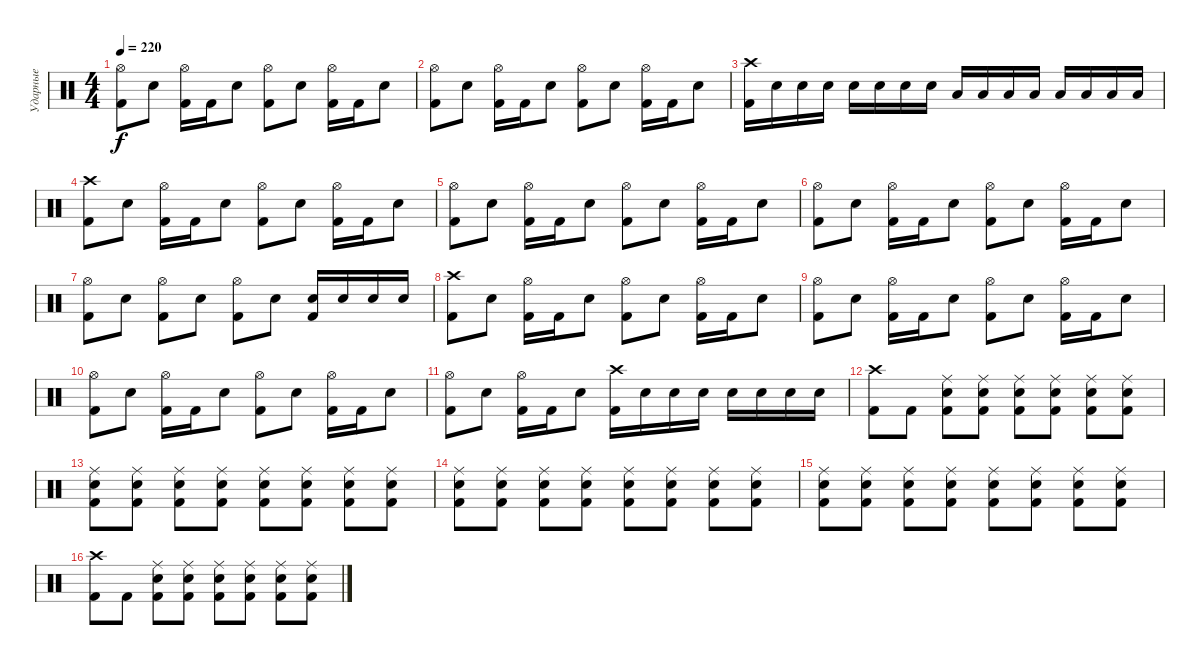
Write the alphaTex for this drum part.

\track ("Ударные" "Ударные") {instrument percussion}
\staff {score}
\articulation defaults
\ts (4 4)
\tempo 220
\clef neutral
\ks c
("Hi-Hat (open)" "Kick (hit) 2").8{dy f} "Electric Snare (hit)".8 ("Hi-Hat (open)" "Kick (hit) 2").16 "Kick (hit) 2".16 "Electric Snare (hit)".8 ("Hi-Hat (open)" "Kick (hit) 2").8 "Electric Snare (hit)".8 ("Hi-Hat (open)" "Kick (hit) 2").16 "Kick (hit) 2".16 "Electric Snare (hit)".8 |
("Hi-Hat (open)" "Kick (hit) 2").8 "Electric Snare (hit)".8 ("Hi-Hat (open)" "Kick (hit) 2").16 "Kick (hit) 2".16 "Electric Snare (hit)".8 ("Hi-Hat (open)" "Kick (hit) 2").8 "Electric Snare (hit)".8 ("Hi-Hat (open)" "Kick (hit) 2").16 "Kick (hit) 2".16 "Electric Snare (hit)".8 |
("Crash high (hit)" "Kick (hit) 2").16 "Electric Snare (hit)".16 "Electric Snare (hit)".16 "Electric Snare (hit)".16 "Electric Snare (hit)".16 "Electric Snare (hit)".16 "Electric Snare (hit)".16 "Electric Snare (hit)".16 "Low Tom (hit)".16 "Low Tom (hit)".16 "Low Tom (hit)".16 "Low Tom (hit)".16 "Low Floor Tom (hit)".16 "Low Floor Tom (hit)".16 "Low Floor Tom (hit)".16 "Low Floor Tom (hit)".16 |
("Crash high (hit)" "Kick (hit) 2").8 "Electric Snare (hit)".8 ("Hi-Hat (open)" "Kick (hit) 2").16 "Kick (hit) 2".16 "Electric Snare (hit)".8 ("Hi-Hat (open)" "Kick (hit) 2").8 "Electric Snare (hit)".8 ("Hi-Hat (open)" "Kick (hit) 2").16 "Kick (hit) 2".16 "Electric Snare (hit)".8 |
("Hi-Hat (open)" "Kick (hit) 2").8 "Electric Snare (hit)".8 ("Hi-Hat (open)" "Kick (hit) 2").16 "Kick (hit) 2".16 "Electric Snare (hit)".8 ("Hi-Hat (open)" "Kick (hit) 2").8 "Electric Snare (hit)".8 ("Hi-Hat (open)" "Kick (hit) 2").16 "Kick (hit) 2".16 "Electric Snare (hit)".8 |
("Hi-Hat (open)" "Kick (hit) 2").8 "Electric Snare (hit)".8 ("Hi-Hat (open)" "Kick (hit) 2").16 "Kick (hit) 2".16 "Electric Snare (hit)".8 ("Hi-Hat (open)" "Kick (hit) 2").8 "Electric Snare (hit)".8 ("Hi-Hat (open)" "Kick (hit) 2").16 "Kick (hit) 2".16 "Electric Snare (hit)".8 |
("Hi-Hat (open)" "Kick (hit) 2").8 "Electric Snare (hit)".8 ("Hi-Hat (open)" "Kick (hit) 2").8 "Electric Snare (hit)".8 ("Hi-Hat (open)" "Kick (hit) 2").8 "Electric Snare (hit)".8 ("Electric Snare (hit)" "Kick (hit) 2").16 "Electric Snare (hit)".16 "Electric Snare (hit)".16 "Electric Snare (hit)".16 |
("Crash high (hit)" "Kick (hit) 2").8 "Electric Snare (hit)".8 ("Hi-Hat (open)" "Kick (hit) 2").16 "Kick (hit) 2".16 "Electric Snare (hit)".8 ("Hi-Hat (open)" "Kick (hit) 2").8 "Electric Snare (hit)".8 ("Hi-Hat (open)" "Kick (hit) 2").16 "Kick (hit) 2".16 "Electric Snare (hit)".8 |
("Hi-Hat (open)" "Kick (hit) 2").8 "Electric Snare (hit)".8 ("Hi-Hat (open)" "Kick (hit) 2").16 "Kick (hit) 2".16 "Electric Snare (hit)".8 ("Hi-Hat (open)" "Kick (hit) 2").8 "Electric Snare (hit)".8 ("Hi-Hat (open)" "Kick (hit) 2").16 "Kick (hit) 2".16 "Electric Snare (hit)".8 |
("Hi-Hat (open)" "Kick (hit) 2").8 "Electric Snare (hit)".8 ("Hi-Hat (open)" "Kick (hit) 2").16 "Kick (hit) 2".16 "Electric Snare (hit)".8 ("Hi-Hat (open)" "Kick (hit) 2").8 "Electric Snare (hit)".8 ("Hi-Hat (open)" "Kick (hit) 2").16 "Kick (hit) 2".16 "Electric Snare (hit)".8 |
("Hi-Hat (open)" "Kick (hit) 2").8 "Electric Snare (hit)".8 ("Hi-Hat (open)" "Kick (hit) 2").16 "Kick (hit) 2".16 "Electric Snare (hit)".8 ("Crash high (hit)" "Kick (hit) 2").16 "Electric Snare (hit)".16 "Electric Snare (hit)".16 "Electric Snare (hit)".16 "Electric Snare (hit)".16 "Electric Snare (hit)".16 "Electric Snare (hit)".16 "Electric Snare (hit)".16 |
("Crash high (hit)" "Kick (hit) 2").8 "Kick (hit) 2".8 ("Ride (middle)" "Electric Snare (hit)" "Kick (hit) 2").8 ("Ride (middle)" "Electric Snare (hit)" "Kick (hit) 2").8 ("Ride (middle)" "Electric Snare (hit)" "Kick (hit) 2").8 ("Ride (middle)" "Electric Snare (hit)" "Kick (hit) 2").8 ("Ride (middle)" "Electric Snare (hit)" "Kick (hit) 2").8 ("Ride (middle)" "Electric Snare (hit)" "Kick (hit) 2").8 |
("Ride (middle)" "Electric Snare (hit)" "Kick (hit) 2").8 ("Ride (middle)" "Electric Snare (hit)" "Kick (hit) 2").8 ("Ride (middle)" "Electric Snare (hit)" "Kick (hit) 2").8 ("Ride (middle)" "Electric Snare (hit)" "Kick (hit) 2").8 ("Ride (middle)" "Electric Snare (hit)" "Kick (hit) 2").8 ("Ride (middle)" "Electric Snare (hit)" "Kick (hit) 2").8 ("Ride (middle)" "Electric Snare (hit)" "Kick (hit) 2").8 ("Ride (middle)" "Electric Snare (hit)" "Kick (hit) 2").8 |
("Ride (middle)" "Electric Snare (hit)" "Kick (hit) 2").8 ("Ride (middle)" "Electric Snare (hit)" "Kick (hit) 2").8 ("Ride (middle)" "Electric Snare (hit)" "Kick (hit) 2").8 ("Ride (middle)" "Electric Snare (hit)" "Kick (hit) 2").8 ("Ride (middle)" "Electric Snare (hit)" "Kick (hit) 2").8 ("Ride (middle)" "Electric Snare (hit)" "Kick (hit) 2").8 ("Ride (middle)" "Electric Snare (hit)" "Kick (hit) 2").8 ("Ride (middle)" "Electric Snare (hit)" "Kick (hit) 2").8 |
("Ride (middle)" "Electric Snare (hit)" "Kick (hit) 2").8 ("Ride (middle)" "Electric Snare (hit)" "Kick (hit) 2").8 ("Ride (middle)" "Electric Snare (hit)" "Kick (hit) 2").8 ("Ride (middle)" "Electric Snare (hit)" "Kick (hit) 2").8 ("Ride (middle)" "Electric Snare (hit)" "Kick (hit) 2").8 ("Ride (middle)" "Electric Snare (hit)" "Kick (hit) 2").8 ("Ride (middle)" "Electric Snare (hit)" "Kick (hit) 2").8 ("Ride (middle)" "Electric Snare (hit)" "Kick (hit) 2").8 |
("Crash high (hit)" "Kick (hit) 2").8 "Kick (hit) 2".8 ("Ride (middle)" "Electric Snare (hit)" "Kick (hit) 2").8 ("Ride (middle)" "Electric Snare (hit)" "Kick (hit) 2").8 ("Ride (middle)" "Electric Snare (hit)" "Kick (hit) 2").8 ("Ride (middle)" "Electric Snare (hit)" "Kick (hit) 2").8 ("Ride (middle)" "Electric Snare (hit)" "Kick (hit) 2").8 ("Ride (middle)" "Electric Snare (hit)" "Kick (hit) 2").8
